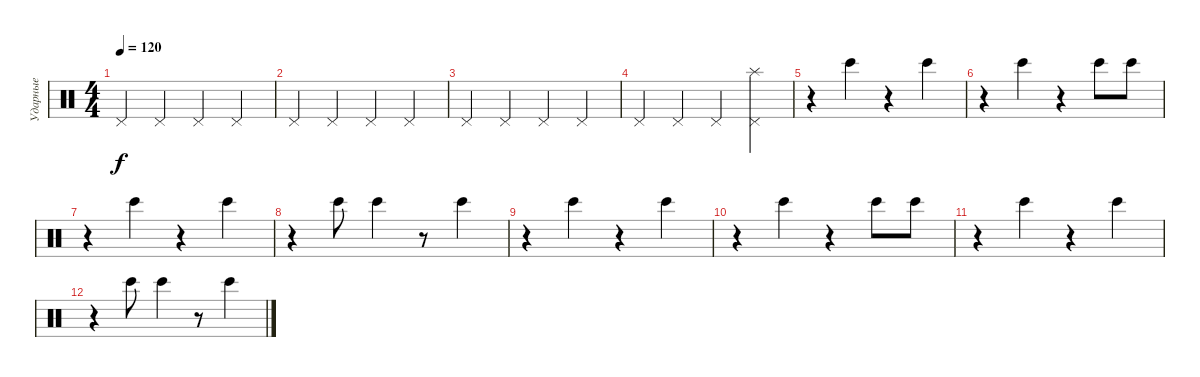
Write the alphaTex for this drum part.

\track ("Ударные" "Ударные") {instrument percussion}
\staff {score}
\articulation defaults
\ts (4 4)
\tempo 120
\clef neutral
\ks c "Pedal Hi-Hat (hit)".4{dy f} "Pedal Hi-Hat (hit)".4 "Pedal Hi-Hat (hit)".4 "Pedal Hi-Hat (hit)".4
|
"Pedal Hi-Hat (hit)".4 "Pedal Hi-Hat (hit)".4 "Pedal Hi-Hat (hit)".4 "Pedal Hi-Hat (hit)".4 |
"Pedal Hi-Hat (hit)".4 "Pedal Hi-Hat (hit)".4 "Pedal Hi-Hat (hit)".4 "Pedal Hi-Hat (hit)".4 |
"Pedal Hi-Hat (hit)".4 "Pedal Hi-Hat (hit)".4 "Pedal Hi-Hat (hit)".4 ("Splash (hit)" "Pedal Hi-Hat (hit)").4 |
r.4 "Bongo High (hit)".4 r.4 "Bongo High (hit)".4 |
r.4 "Bongo High (hit)".4 r.4 "Bongo High (hit)".8 "Bongo High (hit)".8 |
r.4 "Bongo High (hit)".4 r.4 "Bongo High (hit)".4 |
r.4 "Bongo High (hit)".8 "Bongo High (hit)".4 r.8 "Bongo High (hit)".4 |
r.4 "Bongo High (hit)".4 r.4 "Bongo High (hit)".4 |
r.4 "Bongo High (hit)".4 r.4 "Bongo High (hit)".8 "Bongo High (hit)".8 |
r.4 "Bongo High (hit)".4 r.4 "Bongo High (hit)".4 |
r.4 "Bongo High (hit)".8 "Bongo High (hit)".4 r.8 "Bongo High (hit)".4
